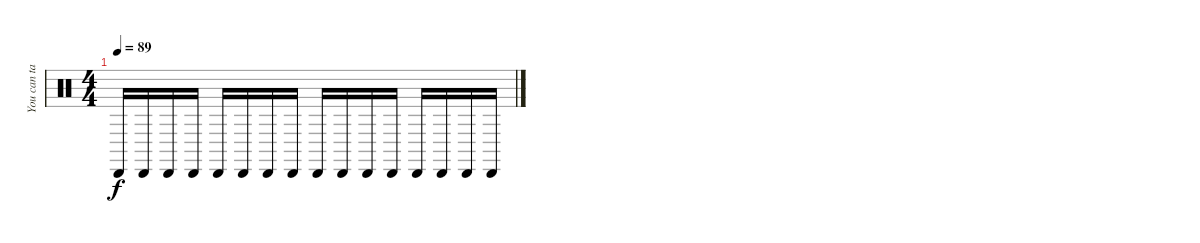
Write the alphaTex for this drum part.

\track ("You can take this file" "You can ta") {solo instrument percussion}
\staff {score}
\articulation defaults
\ts (4 4)
\tempo 89
\clef neutral
\ks c "Cabasa (hit)".16{dy f} "Cabasa (hit)".16 "Cabasa (hit)".16 "Cabasa (hit)".16 "Cabasa (hit)".16 "Cabasa (hit)".16 "Cabasa (hit)".16 "Cabasa (hit)".16 "Cabasa (hit)".16 "Cabasa (hit)".16 "Cabasa (hit)".16 "Cabasa (hit)".16 "Cabasa (hit)".16 "Cabasa (hit)".16 "Cabasa (hit)".16 "Cabasa (hit)".16
